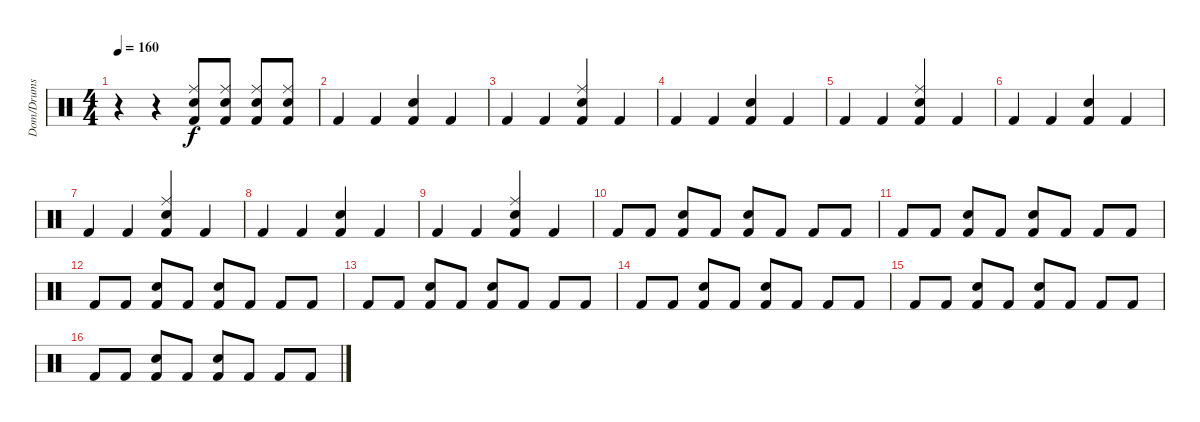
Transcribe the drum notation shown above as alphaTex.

\track ("Dom/Drums" "Dom/Drums") {instrument percussion}
\staff {score}
\articulation defaults
\ts (4 4)
\tempo 160
\clef neutral
\ks c
r.4{dy f} r.4 ("Electric Snare (hit)" "Ride (middle)" "Kick (hit) 2").8 ("Electric Snare (hit)" "Ride (middle)" "Kick (hit) 2").8 ("Electric Snare (hit)" "Ride (middle)" "Kick (hit) 2").8 ("Electric Snare (hit)" "Ride (middle)" "Kick (hit) 2").8 |
"Kick (hit) 2".4 "Kick (hit) 2".4 ("Electric Snare (hit)" "Kick (hit) 2").4 "Kick (hit) 2".4 |
"Kick (hit) 2".4 "Kick (hit) 2".4 ("Electric Snare (hit)" "Ride (middle)" "Kick (hit) 2").4 "Kick (hit) 2".4 |
"Kick (hit) 2".4 "Kick (hit) 2".4 ("Electric Snare (hit)" "Kick (hit) 2").4 "Kick (hit) 2".4 |
"Kick (hit) 2".4 "Kick (hit) 2".4 ("Electric Snare (hit)" "Ride (middle)" "Kick (hit) 2").4 "Kick (hit) 2".4 |
"Kick (hit) 2".4 "Kick (hit) 2".4 ("Electric Snare (hit)" "Kick (hit) 2").4 "Kick (hit) 2".4 |
"Kick (hit) 2".4 "Kick (hit) 2".4 ("Electric Snare (hit)" "Ride (middle)" "Kick (hit) 2").4 "Kick (hit) 2".4 |
"Kick (hit) 2".4 "Kick (hit) 2".4 ("Electric Snare (hit)" "Kick (hit) 2").4 "Kick (hit) 2".4 |
"Kick (hit) 2".4 "Kick (hit) 2".4 ("Electric Snare (hit)" "Ride (middle)" "Kick (hit) 2").4 "Kick (hit) 2".4 |
"Kick (hit) 2".8 "Kick (hit) 2".8 ("Electric Snare (hit)" "Kick (hit) 2").8 "Kick (hit) 2".8 ("Electric Snare (hit)" "Kick (hit) 2").8 "Kick (hit) 2".8 "Kick (hit) 2".8 "Kick (hit) 2".8 |
"Kick (hit) 2".8 "Kick (hit) 2".8 ("Electric Snare (hit)" "Kick (hit) 2").8 "Kick (hit) 2".8 ("Electric Snare (hit)" "Kick (hit) 2").8 "Kick (hit) 2".8 "Kick (hit) 2".8 "Kick (hit) 2".8 |
"Kick (hit) 2".8 "Kick (hit) 2".8 ("Electric Snare (hit)" "Kick (hit) 2").8 "Kick (hit) 2".8 ("Electric Snare (hit)" "Kick (hit) 2").8 "Kick (hit) 2".8 "Kick (hit) 2".8 "Kick (hit) 2".8 |
"Kick (hit) 2".8 "Kick (hit) 2".8 ("Electric Snare (hit)" "Kick (hit) 2").8 "Kick (hit) 2".8 ("Electric Snare (hit)" "Kick (hit) 2").8 "Kick (hit) 2".8 "Kick (hit) 2".8 "Kick (hit) 2".8 |
"Kick (hit) 2".8 "Kick (hit) 2".8 ("Electric Snare (hit)" "Kick (hit) 2").8 "Kick (hit) 2".8 ("Electric Snare (hit)" "Kick (hit) 2").8 "Kick (hit) 2".8 "Kick (hit) 2".8 "Kick (hit) 2".8 |
"Kick (hit) 2".8 "Kick (hit) 2".8 ("Electric Snare (hit)" "Kick (hit) 2").8 "Kick (hit) 2".8 ("Electric Snare (hit)" "Kick (hit) 2").8 "Kick (hit) 2".8 "Kick (hit) 2".8 "Kick (hit) 2".8 |
"Kick (hit) 2".8 "Kick (hit) 2".8 ("Electric Snare (hit)" "Kick (hit) 2").8 "Kick (hit) 2".8 ("Electric Snare (hit)" "Kick (hit) 2").8 "Kick (hit) 2".8 "Kick (hit) 2".8 "Kick (hit) 2".8
